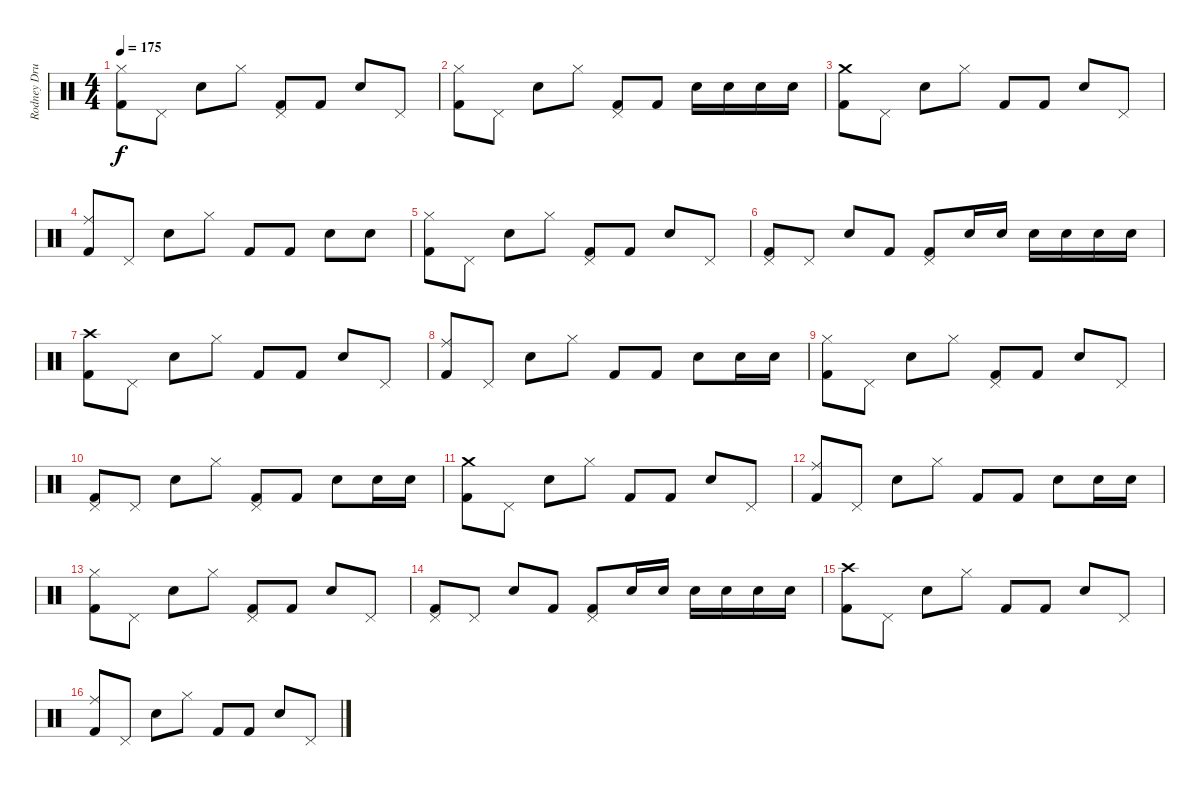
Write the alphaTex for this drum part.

\track ("Rodney Drums" "Rodney Dru") {instrument percussion}
\staff {score}
\articulation defaults
\ts (4 4)
\tempo 175
\clef neutral
\ks c
("Hi-Hat (closed)" "Kick (hit) 2").8{dy f} "Pedal Hi-Hat (hit)".8 "Electric Snare (hit)".8 "Hi-Hat (closed)".8 ("Pedal Hi-Hat (hit)" "Kick (hit) 2").8 "Kick (hit) 2".8 "Electric Snare (hit)".8 "Pedal Hi-Hat (hit)".8 |
("Hi-Hat (closed)" "Kick (hit) 2").8 "Pedal Hi-Hat (hit)".8 "Electric Snare (hit)".8 "Hi-Hat (closed)".8 ("Pedal Hi-Hat (hit)" "Kick (hit) 2").8 "Kick (hit) 2".8 "Electric Snare (hit)".16 "Electric Snare (hit)".16 "Electric Snare (hit)".16 "Electric Snare (hit)".16 |
("Crash medium (hit)" "Kick (hit) 2").8 "Pedal Hi-Hat (hit)".8 "Electric Snare (hit)".8 "Hi-Hat (closed)".8 "Kick (hit) 2".8 "Kick (hit) 2".8 "Electric Snare (hit)".8 "Pedal Hi-Hat (hit)".8 |
("Ride (middle)" "Kick (hit) 2").8 "Pedal Hi-Hat (hit)".8 "Electric Snare (hit)".8 "Hi-Hat (closed)".8 "Kick (hit) 2".8 "Kick (hit) 2".8 "Electric Snare (hit)".8 "Electric Snare (hit)".8 |
("Hi-Hat (closed)" "Kick (hit) 2").8 "Pedal Hi-Hat (hit)".8 "Electric Snare (hit)".8 "Hi-Hat (closed)".8 ("Pedal Hi-Hat (hit)" "Kick (hit) 2").8 "Kick (hit) 2".8 "Electric Snare (hit)".8 "Pedal Hi-Hat (hit)".8 |
("Pedal Hi-Hat (hit)" "Kick (hit) 2").8 "Pedal Hi-Hat (hit)".8 "Electric Snare (hit)".8 "Kick (hit) 2".8 ("Pedal Hi-Hat (hit)" "Kick (hit) 2").8 "Electric Snare (hit)".16 "Electric Snare (hit)".16 "Electric Snare (hit)".16 "Electric Snare (hit)".16 "Electric Snare (hit)".16 "Electric Snare (hit)".16 |
("Crash high (hit)" "Kick (hit) 2").8 "Pedal Hi-Hat (hit)".8 "Electric Snare (hit)".8 "Hi-Hat (closed)".8 "Kick (hit) 2".8 "Kick (hit) 2".8 "Electric Snare (hit)".8 "Pedal Hi-Hat (hit)".8 |
("Ride (middle)" "Kick (hit) 2").8 "Pedal Hi-Hat (hit)".8 "Electric Snare (hit)".8 "Hi-Hat (closed)".8 "Kick (hit) 2".8 "Kick (hit) 2".8 "Electric Snare (hit)".8 "Electric Snare (hit)".16 "Electric Snare (hit)".16 |
("Hi-Hat (closed)" "Kick (hit) 2").8 "Pedal Hi-Hat (hit)".8 "Electric Snare (hit)".8 "Hi-Hat (closed)".8 ("Pedal Hi-Hat (hit)" "Kick (hit) 2").8 "Kick (hit) 2".8 "Electric Snare (hit)".8 "Pedal Hi-Hat (hit)".8 |
("Pedal Hi-Hat (hit)" "Kick (hit) 2").8 "Pedal Hi-Hat (hit)".8 "Electric Snare (hit)".8 "Hi-Hat (closed)".8 ("Pedal Hi-Hat (hit)" "Kick (hit) 2").8 "Kick (hit) 2".8 "Electric Snare (hit)".8 "Electric Snare (hit)".16 "Electric Snare (hit)".16 |
("Crash medium (hit)" "Kick (hit) 2").8 "Pedal Hi-Hat (hit)".8 "Electric Snare (hit)".8 "Hi-Hat (closed)".8 "Kick (hit) 2".8 "Kick (hit) 2".8 "Electric Snare (hit)".8 "Pedal Hi-Hat (hit)".8 |
("Ride (middle)" "Kick (hit) 2").8 "Pedal Hi-Hat (hit)".8 "Electric Snare (hit)".8 "Hi-Hat (closed)".8 "Kick (hit) 2".8 "Kick (hit) 2".8 "Electric Snare (hit)".8 "Electric Snare (hit)".16 "Electric Snare (hit)".16 |
("Hi-Hat (closed)" "Kick (hit) 2").8 "Pedal Hi-Hat (hit)".8 "Electric Snare (hit)".8 "Hi-Hat (closed)".8 ("Pedal Hi-Hat (hit)" "Kick (hit) 2").8 "Kick (hit) 2".8 "Electric Snare (hit)".8 "Pedal Hi-Hat (hit)".8 |
("Pedal Hi-Hat (hit)" "Kick (hit) 2").8 "Pedal Hi-Hat (hit)".8 "Electric Snare (hit)".8 "Kick (hit) 2".8 ("Pedal Hi-Hat (hit)" "Kick (hit) 2").8 "Electric Snare (hit)".16 "Electric Snare (hit)".16 "Electric Snare (hit)".16 "Electric Snare (hit)".16 "Electric Snare (hit)".16 "Electric Snare (hit)".16 |
("Crash high (hit)" "Kick (hit) 2").8 "Pedal Hi-Hat (hit)".8 "Electric Snare (hit)".8 "Hi-Hat (closed)".8 "Kick (hit) 2".8 "Kick (hit) 2".8 "Electric Snare (hit)".8 "Pedal Hi-Hat (hit)".8 |
("Ride (middle)" "Kick (hit) 2").8 "Pedal Hi-Hat (hit)".8 "Electric Snare (hit)".8 "Hi-Hat (closed)".8 "Kick (hit) 2".8 "Kick (hit) 2".8 "Electric Snare (hit)".8 "Pedal Hi-Hat (hit)".8
